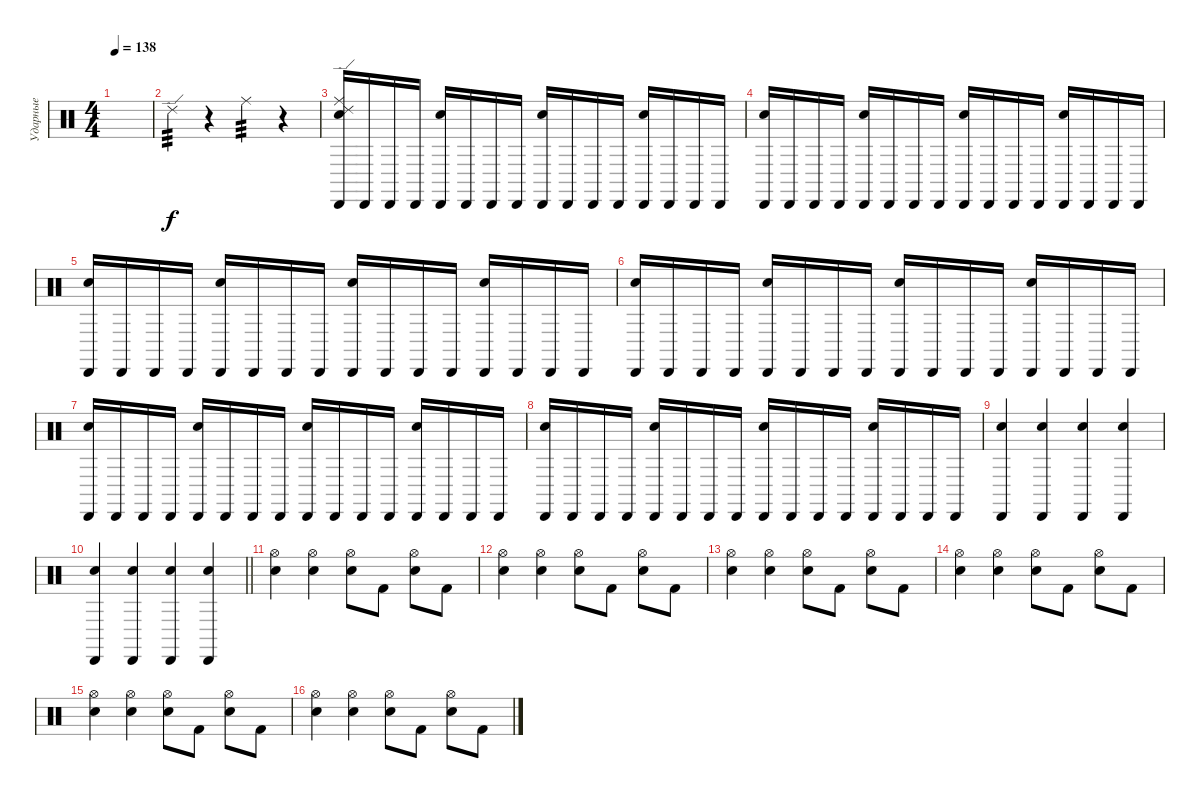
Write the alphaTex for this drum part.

\track ("Ударные" "Ударные") {instrument percussion}
\staff {score}
\articulation defaults
\ts (4 4)
\tempo 138
\clef neutral
\ks c
|
"Ride (edge) 2".4{tp 3} r.4 "Ride (middle)".4{tp 3} r.4 |
("Ride (edge) 2" "Ride (middle)" "Cabasa (hit)" "Hand Clap (hit)").16 "Cabasa (hit)".16 "Cabasa (hit)".16 "Cabasa (hit)".16 ("Cabasa (hit)" "Hand Clap (hit)").16 "Cabasa (hit)".16 "Cabasa (hit)".16 "Cabasa (hit)".16 ("Cabasa (hit)" "Hand Clap (hit)").16 "Cabasa (hit)".16 "Cabasa (hit)".16 "Cabasa (hit)".16 ("Cabasa (hit)" "Hand Clap (hit)").16 "Cabasa (hit)".16 "Cabasa (hit)".16 "Cabasa (hit)".16 |
("Cabasa (hit)" "Hand Clap (hit)").16 "Cabasa (hit)".16 "Cabasa (hit)".16 "Cabasa (hit)".16 ("Cabasa (hit)" "Hand Clap (hit)").16 "Cabasa (hit)".16 "Cabasa (hit)".16 "Cabasa (hit)".16 ("Cabasa (hit)" "Hand Clap (hit)").16 "Cabasa (hit)".16 "Cabasa (hit)".16 "Cabasa (hit)".16 ("Cabasa (hit)" "Hand Clap (hit)").16 "Cabasa (hit)".16 "Cabasa (hit)".16 "Cabasa (hit)".16 |
("Cabasa (hit)" "Hand Clap (hit)").16 "Cabasa (hit)".16 "Cabasa (hit)".16 "Cabasa (hit)".16 ("Cabasa (hit)" "Hand Clap (hit)").16 "Cabasa (hit)".16 "Cabasa (hit)".16 "Cabasa (hit)".16 ("Cabasa (hit)" "Hand Clap (hit)").16 "Cabasa (hit)".16 "Cabasa (hit)".16 "Cabasa (hit)".16 ("Cabasa (hit)" "Hand Clap (hit)").16 "Cabasa (hit)".16 "Cabasa (hit)".16 "Cabasa (hit)".16 |
("Cabasa (hit)" "Hand Clap (hit)").16 "Cabasa (hit)".16 "Cabasa (hit)".16 "Cabasa (hit)".16 ("Cabasa (hit)" "Hand Clap (hit)").16 "Cabasa (hit)".16 "Cabasa (hit)".16 "Cabasa (hit)".16 ("Cabasa (hit)" "Hand Clap (hit)").16 "Cabasa (hit)".16 "Cabasa (hit)".16 "Cabasa (hit)".16 ("Cabasa (hit)" "Hand Clap (hit)").16 "Cabasa (hit)".16 "Cabasa (hit)".16 "Cabasa (hit)".16 |
("Cabasa (hit)" "Hand Clap (hit)").16 "Cabasa (hit)".16 "Cabasa (hit)".16 "Cabasa (hit)".16 ("Cabasa (hit)" "Hand Clap (hit)").16 "Cabasa (hit)".16 "Cabasa (hit)".16 "Cabasa (hit)".16 ("Cabasa (hit)" "Hand Clap (hit)").16 "Cabasa (hit)".16 "Cabasa (hit)".16 "Cabasa (hit)".16 ("Cabasa (hit)" "Hand Clap (hit)").16 "Cabasa (hit)".16 "Cabasa (hit)".16 "Cabasa (hit)".16 |
("Cabasa (hit)" "Hand Clap (hit)").16 "Cabasa (hit)".16 "Cabasa (hit)".16 "Cabasa (hit)".16 ("Cabasa (hit)" "Hand Clap (hit)").16 "Cabasa (hit)".16 "Cabasa (hit)".16 "Cabasa (hit)".16 ("Cabasa (hit)" "Hand Clap (hit)").16 "Cabasa (hit)".16 "Cabasa (hit)".16 "Cabasa (hit)".16 ("Cabasa (hit)" "Hand Clap (hit)").16 "Cabasa (hit)".16 "Cabasa (hit)".16 "Cabasa (hit)".16 |
("Cabasa (hit)" "Hand Clap (hit)").4 ("Cabasa (hit)" "Hand Clap (hit)").4 ("Cabasa (hit)" "Hand Clap (hit)").4 ("Cabasa (hit)" "Hand Clap (hit)").4 |
\barLineRight lightlight
("Cabasa (hit)" "Hand Clap (hit)").4 ("Cabasa (hit)" "Hand Clap (hit)").4 ("Cabasa (hit)" "Hand Clap (hit)").4 ("Cabasa (hit)" "Hand Clap (hit)").4 |
("Snare (hit) 2" "Hi-Hat (open)").4 ("Snare (hit) 2" "Hi-Hat (open)").4 ("Snare (hit) 2" "Hi-Hat (open)").8 "Kick (hit) 2".8 ("Hi-Hat (open)" "Snare (hit) 2").8 "Kick (hit) 2".8 |
("Snare (hit) 2" "Hi-Hat (open)").4 ("Snare (hit) 2" "Hi-Hat (open)").4 ("Snare (hit) 2" "Hi-Hat (open)").8 "Kick (hit) 2".8 ("Hi-Hat (open)" "Snare (hit) 2").8 "Kick (hit) 2".8 |
("Snare (hit) 2" "Hi-Hat (open)").4 ("Snare (hit) 2" "Hi-Hat (open)").4 ("Snare (hit) 2" "Hi-Hat (open)").8 "Kick (hit) 2".8 ("Hi-Hat (open)" "Snare (hit) 2").8 "Kick (hit) 2".8 |
("Snare (hit) 2" "Hi-Hat (open)").4 ("Snare (hit) 2" "Hi-Hat (open)").4 ("Snare (hit) 2" "Hi-Hat (open)").8 "Kick (hit) 2".8 ("Hi-Hat (open)" "Snare (hit) 2").8 "Kick (hit) 2".8 |
("Snare (hit) 2" "Hi-Hat (open)").4 ("Snare (hit) 2" "Hi-Hat (open)").4 ("Snare (hit) 2" "Hi-Hat (open)").8 "Kick (hit) 2".8 ("Hi-Hat (open)" "Snare (hit) 2").8 "Kick (hit) 2".8 |
("Snare (hit) 2" "Hi-Hat (open)").4 ("Snare (hit) 2" "Hi-Hat (open)").4 ("Snare (hit) 2" "Hi-Hat (open)").8 "Kick (hit) 2".8 ("Hi-Hat (open)" "Snare (hit) 2").8 "Kick (hit) 2".8
